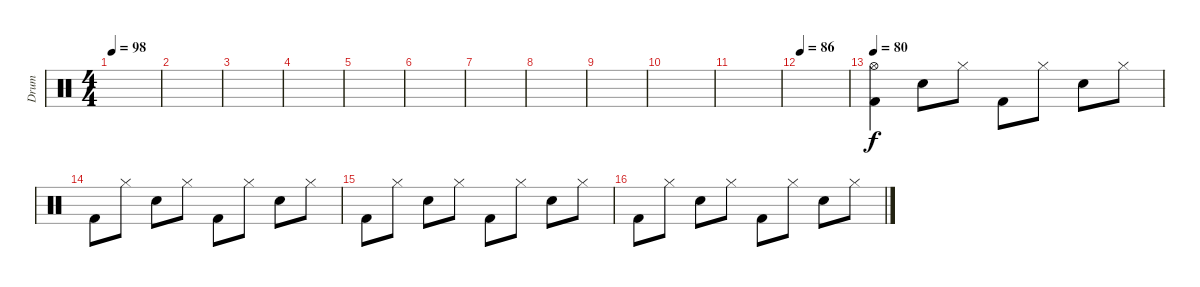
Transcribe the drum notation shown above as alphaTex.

\track ("Drum" "Drum") {instrument percussion}
\staff {score}
\articulation defaults
\ts (4 4)
\tempo 98
\clef neutral
\ks c
|
|
|
|
|
|
|
|
|
|
|
\tempo 86
|
\tempo 80
("Hi-Hat (open)" "Kick (hit) 2").4 "Electric Snare (hit)".8 "Hi-Hat (closed)".8 "Kick (hit) 2".8 "Hi-Hat (closed)".8 "Electric Snare (hit)".8 "Hi-Hat (closed)".8 |
"Kick (hit) 2".8 "Hi-Hat (closed)".8 "Electric Snare (hit)".8 "Hi-Hat (closed)".8 "Kick (hit) 2".8 "Hi-Hat (closed)".8 "Electric Snare (hit)".8 "Hi-Hat (closed)".8 |
"Kick (hit) 2".8 "Hi-Hat (closed)".8 "Electric Snare (hit)".8 "Hi-Hat (closed)".8 "Kick (hit) 2".8 "Hi-Hat (closed)".8 "Electric Snare (hit)".8 "Hi-Hat (closed)".8 |
"Kick (hit) 2".8 "Hi-Hat (closed)".8 "Electric Snare (hit)".8 "Hi-Hat (closed)".8 "Kick (hit) 2".8 "Hi-Hat (closed)".8 "Electric Snare (hit)".8 "Hi-Hat (closed)".8
